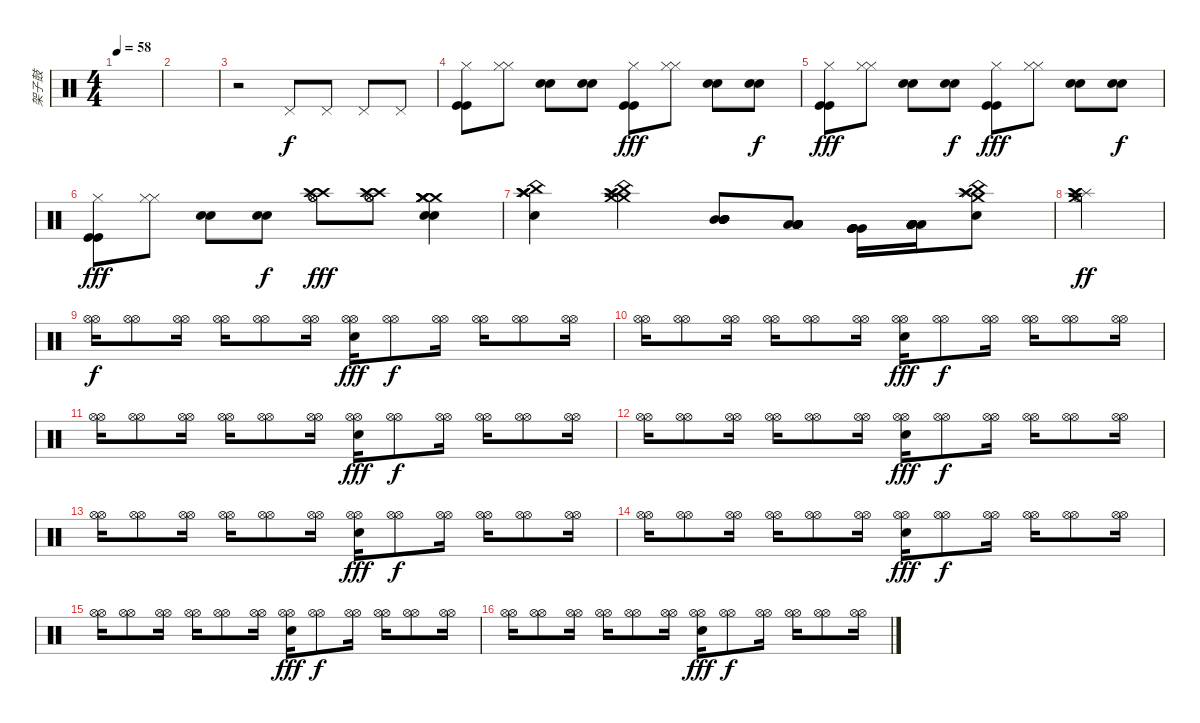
\track ("架子鼓" "架子鼓") {instrument percussion}
\staff {score}
\articulation defaults
\ts (4 4)
\tempo 58
\clef neutral
\ks c
|
|
r.2 "Pedal Hi-Hat (hit)".8 "Pedal Hi-Hat (hit)".8 "Pedal Hi-Hat (hit)".8 "Pedal Hi-Hat (hit)".8 |
("Kick (hit)" "Kick (hit)" "Hi-Hat (closed)").8 ("Hi-Hat (closed)" "Hi-Hat (closed)").8 ("Snare (hit) 2" "Snare (hit) 2").8 ("Snare (hit) 2" "Snare (hit) 2").8{dy f} ("Kick (hit)" "Kick (hit)" "Hi-Hat (closed)").8{dy fff} ("Hi-Hat (closed)" "Hi-Hat (closed)").8 ("Snare (hit) 2" "Snare (hit) 2").8 ("Snare (hit) 2" "Snare (hit) 2").8{dy f} |
("Kick (hit)" "Kick (hit)" "Hi-Hat (closed)").8{dy fff} ("Hi-Hat (closed)" "Hi-Hat (closed)").8 ("Snare (hit) 2" "Snare (hit) 2").8 ("Snare (hit) 2" "Snare (hit) 2").8{dy f} ("Kick (hit)" "Kick (hit)" "Hi-Hat (closed)").8{dy fff} ("Hi-Hat (closed)" "Hi-Hat (closed)").8 ("Snare (hit) 2" "Snare (hit) 2").8 ("Snare (hit) 2" "Snare (hit) 2").8{dy f} |
("Kick (hit)" "Kick (hit)" "Hi-Hat (closed)").8{dy fff} ("Hi-Hat (closed)" "Hi-Hat (closed)").8 ("Snare (hit) 2" "Snare (hit) 2").8 ("Snare (hit) 2" "Snare (hit) 2").8{dy f} ("Crash high (hit)" "Splash (hit)" "Hi-Hat (open)" "Hi-Hat (open)" "Hi-Hat (open)" "Crash high (hit)").8{dy fff} ("Crash high (hit)" "Splash (hit)" "Hi-Hat (open)" "Hi-Hat (open)" "Hi-Hat (open)" "Crash high (hit)").8 ("Crash medium (hit)" "Crash medium (hit)" "Snare (hit) 2" "Snare (hit) 2" "Crash medium (hit)" "Crash medium (hit)").4 |
("Crash high (hit)" "Splash (hit)" "Crash high (hit)" "Snare (hit) 2" "China (hit)" "Splash (hit)").4 ("Crash high (hit)" "Splash (hit)" "China (hit)" "Splash (hit)" "Crash medium (hit)" "Crash medium (hit)").4 ("Mid Tom (hit)" "Mid Tom (hit)" "Mid Tom (hit)" "Mid Tom (hit)" "Mid Tom (hit)").8 ("Low Tom (hit)" "Low Tom (hit)" "Low Tom (hit)" "Low Tom (hit)" "Low Tom (hit)").8 ("Very Low Tom (hit)" "Very Low Tom (hit)" "Very Low Tom (hit)" "Very Low Tom (hit)" "Very Low Tom (hit)").16 ("Low Floor Tom (hit)" "Low Floor Tom (hit)" "Low Floor Tom (hit)" "Low Floor Tom (hit)" "Low Floor Tom (hit)").16 ("Snare (hit) 2" "Splash (hit)" "Splash (hit)" "Crash medium (hit)" "China (hit)" "Crash high (hit)").8 |
("Crash medium (hit)" "Splash (hit)" "Hi-Hat (open)" "Splash (hit)" "Crash high (hit)" "Crash high (hit)").2{dy ff} |
("Hi-Hat (open)" "Hi-Hat (open)").16{dy f} ("Hi-Hat (open)" "Hi-Hat (open)").8 ("Hi-Hat (open)" "Hi-Hat (open)").16 ("Hi-Hat (open)" "Hi-Hat (open)").16 ("Hi-Hat (open)" "Hi-Hat (open)").8 ("Hi-Hat (open)" "Hi-Hat (open)").16 ("Electric Snare (hit)" "Hi-Hat (open)" "Hi-Hat (open)").16{dy fff} ("Hi-Hat (open)" "Hi-Hat (open)").8{dy f} ("Hi-Hat (open)" "Hi-Hat (open)").16 ("Hi-Hat (open)" "Hi-Hat (open)").16 ("Hi-Hat (open)" "Hi-Hat (open)").8 ("Hi-Hat (open)" "Hi-Hat (open)").16 |
("Hi-Hat (open)" "Hi-Hat (open)").16 ("Hi-Hat (open)" "Hi-Hat (open)").8 ("Hi-Hat (open)" "Hi-Hat (open)").16 ("Hi-Hat (open)" "Hi-Hat (open)").16 ("Hi-Hat (open)" "Hi-Hat (open)").8 ("Hi-Hat (open)" "Hi-Hat (open)").16 ("Electric Snare (hit)" "Hi-Hat (open)" "Hi-Hat (open)").16{dy fff} ("Hi-Hat (open)" "Hi-Hat (open)").8{dy f} ("Hi-Hat (open)" "Hi-Hat (open)").16 ("Hi-Hat (open)" "Hi-Hat (open)").16 ("Hi-Hat (open)" "Hi-Hat (open)").8 ("Hi-Hat (open)" "Hi-Hat (open)").16 |
("Hi-Hat (open)" "Hi-Hat (open)").16 ("Hi-Hat (open)" "Hi-Hat (open)").8 ("Hi-Hat (open)" "Hi-Hat (open)").16 ("Hi-Hat (open)" "Hi-Hat (open)").16 ("Hi-Hat (open)" "Hi-Hat (open)").8 ("Hi-Hat (open)" "Hi-Hat (open)").16 ("Electric Snare (hit)" "Hi-Hat (open)" "Hi-Hat (open)").16{dy fff} ("Hi-Hat (open)" "Hi-Hat (open)").8{dy f} ("Hi-Hat (open)" "Hi-Hat (open)").16 ("Hi-Hat (open)" "Hi-Hat (open)").16 ("Hi-Hat (open)" "Hi-Hat (open)").8 ("Hi-Hat (open)" "Hi-Hat (open)").16 |
("Hi-Hat (open)" "Hi-Hat (open)").16 ("Hi-Hat (open)" "Hi-Hat (open)").8 ("Hi-Hat (open)" "Hi-Hat (open)").16 ("Hi-Hat (open)" "Hi-Hat (open)").16 ("Hi-Hat (open)" "Hi-Hat (open)").8 ("Hi-Hat (open)" "Hi-Hat (open)").16 ("Electric Snare (hit)" "Hi-Hat (open)" "Hi-Hat (open)").16{dy fff} ("Hi-Hat (open)" "Hi-Hat (open)").8{dy f} ("Hi-Hat (open)" "Hi-Hat (open)").16 ("Hi-Hat (open)" "Hi-Hat (open)").16 ("Hi-Hat (open)" "Hi-Hat (open)").8 ("Hi-Hat (open)" "Hi-Hat (open)").16 |
("Hi-Hat (open)" "Hi-Hat (open)").16 ("Hi-Hat (open)" "Hi-Hat (open)").8 ("Hi-Hat (open)" "Hi-Hat (open)").16 ("Hi-Hat (open)" "Hi-Hat (open)").16 ("Hi-Hat (open)" "Hi-Hat (open)").8 ("Hi-Hat (open)" "Hi-Hat (open)").16 ("Electric Snare (hit)" "Hi-Hat (open)" "Hi-Hat (open)").16{dy fff} ("Hi-Hat (open)" "Hi-Hat (open)").8{dy f} ("Hi-Hat (open)" "Hi-Hat (open)").16 ("Hi-Hat (open)" "Hi-Hat (open)").16 ("Hi-Hat (open)" "Hi-Hat (open)").8 ("Hi-Hat (open)" "Hi-Hat (open)").16 |
("Hi-Hat (open)" "Hi-Hat (open)").16 ("Hi-Hat (open)" "Hi-Hat (open)").8 ("Hi-Hat (open)" "Hi-Hat (open)").16 ("Hi-Hat (open)" "Hi-Hat (open)").16 ("Hi-Hat (open)" "Hi-Hat (open)").8 ("Hi-Hat (open)" "Hi-Hat (open)").16 ("Electric Snare (hit)" "Hi-Hat (open)" "Hi-Hat (open)").16{dy fff} ("Hi-Hat (open)" "Hi-Hat (open)").8{dy f} ("Hi-Hat (open)" "Hi-Hat (open)").16 ("Hi-Hat (open)" "Hi-Hat (open)").16 ("Hi-Hat (open)" "Hi-Hat (open)").8 ("Hi-Hat (open)" "Hi-Hat (open)").16 |
("Hi-Hat (open)" "Hi-Hat (open)").16 ("Hi-Hat (open)" "Hi-Hat (open)").8 ("Hi-Hat (open)" "Hi-Hat (open)").16 ("Hi-Hat (open)" "Hi-Hat (open)").16 ("Hi-Hat (open)" "Hi-Hat (open)").8 ("Hi-Hat (open)" "Hi-Hat (open)").16 ("Electric Snare (hit)" "Hi-Hat (open)" "Hi-Hat (open)").16{dy fff} ("Hi-Hat (open)" "Hi-Hat (open)").8{dy f} ("Hi-Hat (open)" "Hi-Hat (open)").16 ("Hi-Hat (open)" "Hi-Hat (open)").16 ("Hi-Hat (open)" "Hi-Hat (open)").8 ("Hi-Hat (open)" "Hi-Hat (open)").16 |
("Hi-Hat (open)" "Hi-Hat (open)").16 ("Hi-Hat (open)" "Hi-Hat (open)").8 ("Hi-Hat (open)" "Hi-Hat (open)").16 ("Hi-Hat (open)" "Hi-Hat (open)").16 ("Hi-Hat (open)" "Hi-Hat (open)").8 ("Hi-Hat (open)" "Hi-Hat (open)").16 ("Electric Snare (hit)" "Hi-Hat (open)" "Hi-Hat (open)").16{dy fff} ("Hi-Hat (open)" "Hi-Hat (open)").8{dy f} ("Hi-Hat (open)" "Hi-Hat (open)").16 ("Hi-Hat (open)" "Hi-Hat (open)").16 ("Hi-Hat (open)" "Hi-Hat (open)").8 ("Hi-Hat (open)" "Hi-Hat (open)").16
